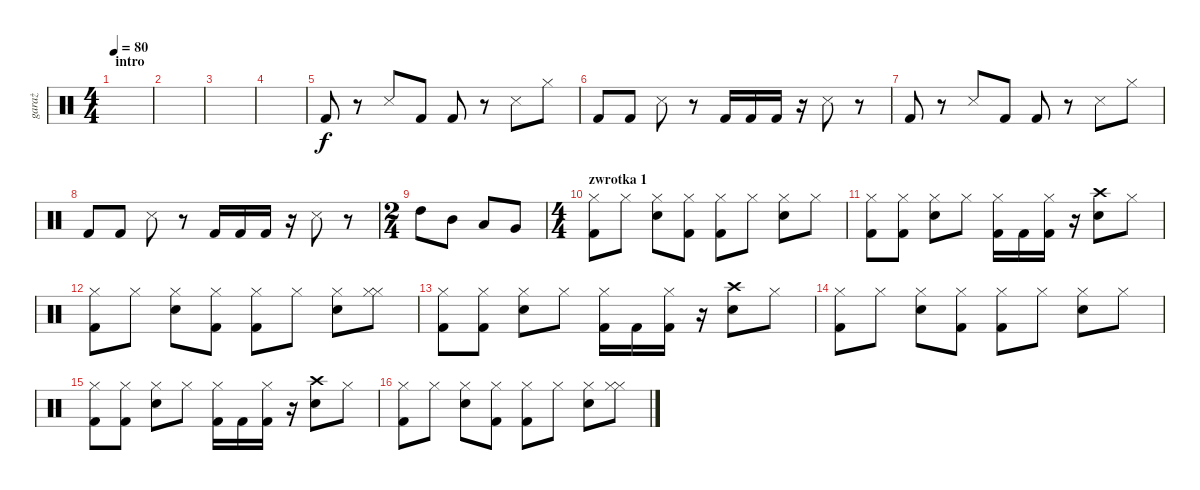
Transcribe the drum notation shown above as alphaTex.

\track ("garaż" "garaż") {instrument percussion}
\staff {score}
\articulation defaults
\ts (4 4)
\section ("" "intro")
\tempo 80
\clef neutral
\ks c
|
|
|
|
"Kick (hit) 2".8 r.8 "Snare (side stick) 3".8 "Kick (hit) 2".8 "Kick (hit) 2".8 r.8 "Snare (side stick) 3".8 "Hi-Hat (closed)".8 |
"Kick (hit) 2".8 "Kick (hit) 2".8 "Snare (side stick) 3".8 r.8 "Kick (hit) 2".16 "Kick (hit) 2".16 "Kick (hit) 2".16 r.16 "Snare (side stick) 3".8 r.8 |
"Kick (hit) 2".8 r.8 "Snare (side stick) 3".8 "Kick (hit) 2".8 "Kick (hit) 2".8 r.8 "Snare (side stick) 3".8 "Hi-Hat (closed)".8 |
"Kick (hit) 2".8 "Kick (hit) 2".8 "Snare (side stick) 3".8 r.8 "Kick (hit) 2".16 "Kick (hit) 2".16 "Kick (hit) 2".16 r.16 "Snare (side stick) 3".8 r.8 |
\ts (2 4)
"High Tom (hit)".8 "Mid Tom (hit)".8 "Low Tom (hit)".8 "Very Low Tom (hit)".8 |
\ts (4 4)
\section ("" "zwrotka 1")
("Hi-Hat (closed)" "Kick (hit) 2").8 "Hi-Hat (closed)".8 ("Hi-Hat (closed)" "Snare (hit) 2").8 ("Hi-Hat (closed)" "Kick (hit) 2").8 ("Hi-Hat (closed)" "Kick (hit) 2").8 "Hi-Hat (closed)".8 ("Hi-Hat (closed)" "Snare (hit) 2").8 "Hi-Hat (closed)".8 |
("Hi-Hat (closed)" "Kick (hit) 2").8 ("Hi-Hat (closed)" "Kick (hit) 2").8 ("Hi-Hat (closed)" "Snare (hit) 2").8 "Hi-Hat (closed)".8 ("Hi-Hat (closed)" "Kick (hit) 2").16 "Kick (hit) 2".16 ("Hi-Hat (closed)" "Kick (hit) 2").16 r.16 ("Crash high (hit)" "Snare (hit) 2").8 "Hi-Hat (closed)".8 |
("Hi-Hat (closed)" "Kick (hit) 2").8 "Hi-Hat (closed)".8 ("Hi-Hat (closed)" "Snare (hit) 2").8 ("Hi-Hat (closed)" "Kick (hit) 2").8 ("Hi-Hat (closed)" "Kick (hit) 2").8 "Hi-Hat (closed)".8 ("Hi-Hat (closed)" "Snare (hit) 2").8 ("Hi-Hat (closed)" "Hi-Hat (closed)").8 |
("Hi-Hat (closed)" "Kick (hit) 2").8 ("Hi-Hat (closed)" "Kick (hit) 2").8 ("Hi-Hat (closed)" "Snare (hit) 2").8 "Hi-Hat (closed)".8 ("Hi-Hat (closed)" "Kick (hit) 2").16 "Kick (hit) 2".16 ("Hi-Hat (closed)" "Kick (hit) 2").16 r.16 ("Crash high (hit)" "Snare (hit) 2").8 "Hi-Hat (closed)".8 |
("Hi-Hat (closed)" "Kick (hit) 2").8 "Hi-Hat (closed)".8 ("Hi-Hat (closed)" "Snare (hit) 2").8 ("Hi-Hat (closed)" "Kick (hit) 2").8 ("Hi-Hat (closed)" "Kick (hit) 2").8 "Hi-Hat (closed)".8 ("Hi-Hat (closed)" "Snare (hit) 2").8 "Hi-Hat (closed)".8 |
("Hi-Hat (closed)" "Kick (hit) 2").8 ("Hi-Hat (closed)" "Kick (hit) 2").8 ("Hi-Hat (closed)" "Snare (hit) 2").8 "Hi-Hat (closed)".8 ("Hi-Hat (closed)" "Kick (hit) 2").16 "Kick (hit) 2".16 ("Hi-Hat (closed)" "Kick (hit) 2").16 r.16 ("Crash high (hit)" "Snare (hit) 2").8 "Hi-Hat (closed)".8 |
("Hi-Hat (closed)" "Kick (hit) 2").8 "Hi-Hat (closed)".8 ("Hi-Hat (closed)" "Snare (hit) 2").8 ("Hi-Hat (closed)" "Kick (hit) 2").8 ("Hi-Hat (closed)" "Kick (hit) 2").8 "Hi-Hat (closed)".8 ("Hi-Hat (closed)" "Snare (hit) 2").8 ("Hi-Hat (closed)" "Hi-Hat (closed)").8
